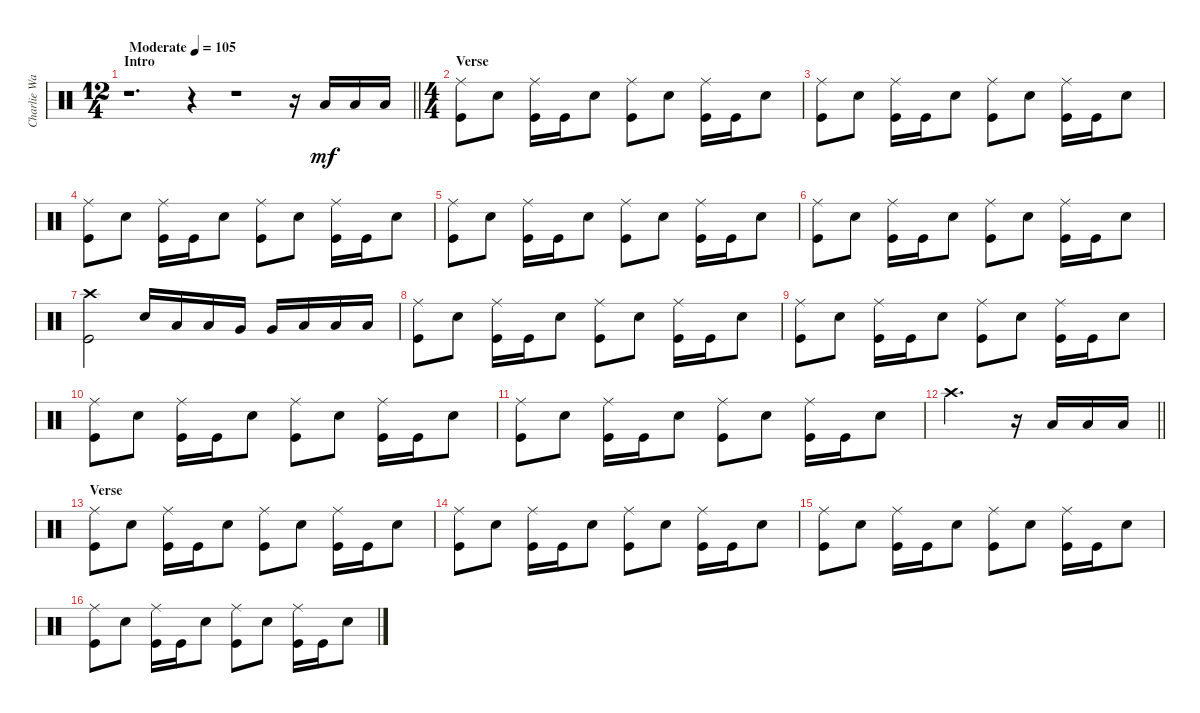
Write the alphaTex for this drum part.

\track ("Charlie Watts" "Charlie Wa") {instrument percussion}
\staff {score}
\articulation defaults
\ts (12 4)
\section ("" "Intro")
\tempo (105 "Moderate")
\clef neutral
\barLineRight lightlight
\ks c
r.1{d dy mf} r.4 r.1 r.16 "Low Tom (hit)".16 "Low Tom (hit)".16 "Low Tom (hit)".16 |
\ts (4 4)
\section ("" "Verse")
("Ride (middle)" "Kick (hit)").8 "Snare (hit) 2".8 ("Ride (middle)" "Kick (hit)").16 "Kick (hit)".16 "Snare (hit) 2".8 ("Ride (middle)" "Kick (hit)").8 "Snare (hit) 2".8 ("Ride (middle)" "Kick (hit)").16 "Kick (hit)".16 "Snare (hit) 2".8 |
("Ride (middle)" "Kick (hit)").8 "Snare (hit) 2".8 ("Ride (middle)" "Kick (hit)").16 "Kick (hit)".16 "Snare (hit) 2".8 ("Ride (middle)" "Kick (hit)").8 "Snare (hit) 2".8 ("Ride (middle)" "Kick (hit)").16 "Kick (hit)".16 "Snare (hit) 2".8 |
("Ride (middle)" "Kick (hit)").8 "Snare (hit) 2".8 ("Ride (middle)" "Kick (hit)").16 "Kick (hit)".16 "Snare (hit) 2".8 ("Ride (middle)" "Kick (hit)").8 "Snare (hit) 2".8 ("Ride (middle)" "Kick (hit)").16 "Kick (hit)".16 "Snare (hit) 2".8 |
("Ride (middle)" "Kick (hit)").8 "Snare (hit) 2".8 ("Ride (middle)" "Kick (hit)").16 "Kick (hit)".16 "Snare (hit) 2".8 ("Ride (middle)" "Kick (hit)").8 "Snare (hit) 2".8 ("Ride (middle)" "Kick (hit)").16 "Kick (hit)".16 "Snare (hit) 2".8 |
("Ride (middle)" "Kick (hit)").8 "Snare (hit) 2".8 ("Ride (middle)" "Kick (hit)").16 "Kick (hit)".16 "Snare (hit) 2".8 ("Ride (middle)" "Kick (hit)").8 "Snare (hit) 2".8 ("Ride (middle)" "Kick (hit)").16 "Kick (hit)".16 "Snare (hit) 2".8 |
("Crash high (hit)" "Kick (hit)").2 "Snare (hit) 2".16 "Low Tom (hit)".16 "Low Tom (hit)".16 "Very Low Tom (hit)".16 "Very Low Tom (hit)".16 "Low Floor Tom (hit)".16 "Low Floor Tom (hit)".16 "Low Floor Tom (hit)".16 |
("Ride (middle)" "Kick (hit)").8 "Snare (hit) 2".8 ("Ride (middle)" "Kick (hit)").16 "Kick (hit)".16 "Snare (hit) 2".8 ("Ride (middle)" "Kick (hit)").8 "Snare (hit) 2".8 ("Ride (middle)" "Kick (hit)").16 "Kick (hit)".16 "Snare (hit) 2".8 |
("Ride (middle)" "Kick (hit)").8 "Snare (hit) 2".8 ("Ride (middle)" "Kick (hit)").16 "Kick (hit)".16 "Snare (hit) 2".8 ("Ride (middle)" "Kick (hit)").8 "Snare (hit) 2".8 ("Ride (middle)" "Kick (hit)").16 "Kick (hit)".16 "Snare (hit) 2".8 |
("Ride (middle)" "Kick (hit)").8 "Snare (hit) 2".8 ("Ride (middle)" "Kick (hit)").16 "Kick (hit)".16 "Snare (hit) 2".8 ("Ride (middle)" "Kick (hit)").8 "Snare (hit) 2".8 ("Ride (middle)" "Kick (hit)").16 "Kick (hit)".16 "Snare (hit) 2".8 |
("Ride (middle)" "Kick (hit)").8 "Snare (hit) 2".8 ("Ride (middle)" "Kick (hit)").16 "Kick (hit)".16 "Snare (hit) 2".8 ("Ride (middle)" "Kick (hit)").8 "Snare (hit) 2".8 ("Ride (middle)" "Kick (hit)").16 "Kick (hit)".16 "Snare (hit) 2".8 |
\barLineRight lightlight "Crash high (hit)".2{d}
r.16 "Low Tom (hit)".16 "Low Tom (hit)".16 "Low Tom (hit)".16 |
\section ("" "Verse")
("Ride (middle)" "Kick (hit)").8 "Snare (hit) 2".8 ("Ride (middle)" "Kick (hit)").16 "Kick (hit)".16 "Snare (hit) 2".8 ("Ride (middle)" "Kick (hit)").8 "Snare (hit) 2".8 ("Ride (middle)" "Kick (hit)").16 "Kick (hit)".16 "Snare (hit) 2".8 |
("Ride (middle)" "Kick (hit)").8 "Snare (hit) 2".8 ("Ride (middle)" "Kick (hit)").16 "Kick (hit)".16 "Snare (hit) 2".8 ("Ride (middle)" "Kick (hit)").8 "Snare (hit) 2".8 ("Ride (middle)" "Kick (hit)").16 "Kick (hit)".16 "Snare (hit) 2".8 |
("Ride (middle)" "Kick (hit)").8 "Snare (hit) 2".8 ("Ride (middle)" "Kick (hit)").16 "Kick (hit)".16 "Snare (hit) 2".8 ("Ride (middle)" "Kick (hit)").8 "Snare (hit) 2".8 ("Ride (middle)" "Kick (hit)").16 "Kick (hit)".16 "Snare (hit) 2".8 |
("Ride (middle)" "Kick (hit)").8 "Snare (hit) 2".8 ("Ride (middle)" "Kick (hit)").16 "Kick (hit)".16 "Snare (hit) 2".8 ("Ride (middle)" "Kick (hit)").8 "Snare (hit) 2".8 ("Ride (middle)" "Kick (hit)").16 "Kick (hit)".16 "Snare (hit) 2".8
